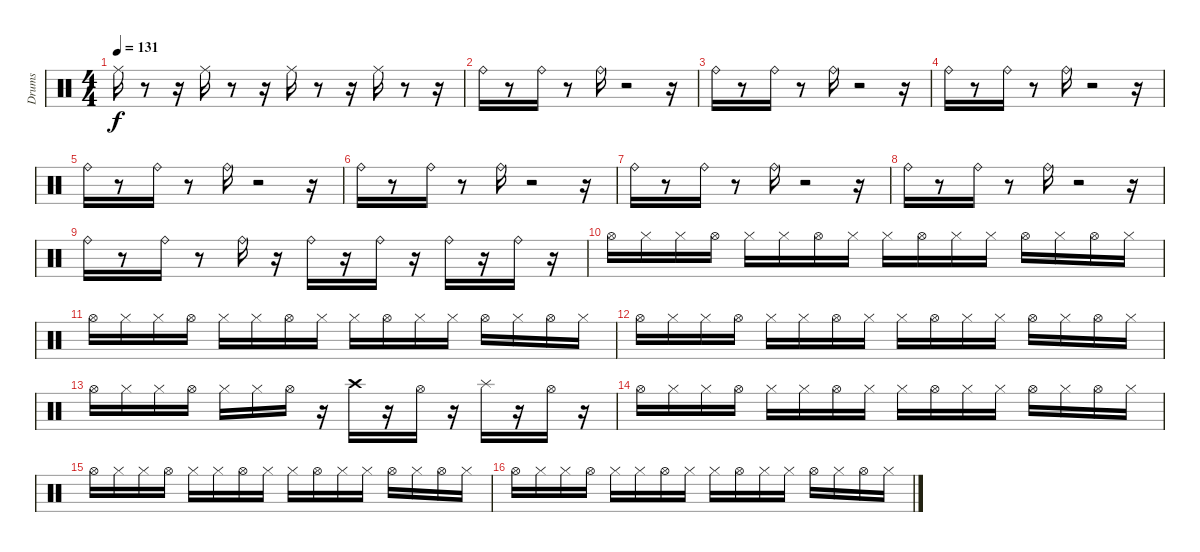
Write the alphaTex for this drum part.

\track ("Drums" "Drums") {instrument percussion}
\staff {score}
\articulation defaults
\ts (4 4)
\tempo 131
\clef neutral
\ks c "Ride (middle)".16{dy f}
r.8 r.16 "Ride (middle)".16 r.8 r.16 "Ride (middle)".16 r.8 r.16 "Ride (middle)".16 r.8 r.16 |
"Ride (bell)".16 r.8 "Ride (bell)".16 r.8 "Ride (bell)".16 r.2 r.16 |
"Ride (bell)".16 r.8 "Ride (bell)".16 r.8 "Ride (bell)".16 r.2 r.16 |
"Ride (bell)".16 r.8 "Ride (bell)".16 r.8 "Ride (bell)".16 r.2 r.16 |
"Ride (bell)".16 r.8 "Ride (bell)".16 r.8 "Ride (bell)".16 r.2 r.16 |
"Ride (bell)".16 r.8 "Ride (bell)".16 r.8 "Ride (bell)".16 r.2 r.16 |
"Ride (bell)".16 r.8 "Ride (bell)".16 r.8 "Ride (bell)".16 r.2 r.16 |
"Ride (bell)".16 r.8 "Ride (bell)".16 r.8 "Ride (bell)".16 r.2 r.16 |
"Ride (bell)".16 r.8 "Ride (bell)".16 r.8 "Ride (bell)".16 r.16 "Ride (bell)".16 r.16 "Ride (bell)".16 r.16 "Ride (bell)".16 r.16 "Ride (bell)".16 r.16 |
"Hi-Hat (open)".16 "Hi-Hat (closed)".16 "Hi-Hat (closed)".16 "Hi-Hat (open)".16 "Hi-Hat (closed)".16 "Hi-Hat (closed)".16 "Hi-Hat (open)".16 "Hi-Hat (closed)".16 "Hi-Hat (closed)".16 "Hi-Hat (open)".16 "Hi-Hat (closed)".16 "Hi-Hat (closed)".16 "Hi-Hat (open)".16 "Hi-Hat (closed)".16 "Hi-Hat (open)".16 "Hi-Hat (closed)".16 |
"Hi-Hat (open)".16 "Hi-Hat (closed)".16 "Hi-Hat (closed)".16 "Hi-Hat (open)".16 "Hi-Hat (closed)".16 "Hi-Hat (closed)".16 "Hi-Hat (open)".16 "Hi-Hat (closed)".16 "Hi-Hat (closed)".16 "Hi-Hat (open)".16 "Hi-Hat (closed)".16 "Hi-Hat (closed)".16 "Hi-Hat (open)".16 "Hi-Hat (closed)".16 "Hi-Hat (open)".16 "Hi-Hat (closed)".16 |
"Hi-Hat (open)".16 "Hi-Hat (closed)".16 "Hi-Hat (closed)".16 "Hi-Hat (open)".16 "Hi-Hat (closed)".16 "Hi-Hat (closed)".16 "Hi-Hat (open)".16 "Hi-Hat (closed)".16 "Hi-Hat (closed)".16 "Hi-Hat (open)".16 "Hi-Hat (closed)".16 "Hi-Hat (closed)".16 "Hi-Hat (open)".16 "Hi-Hat (closed)".16 "Hi-Hat (open)".16 "Hi-Hat (closed)".16 |
"Hi-Hat (open)".16 "Hi-Hat (closed)".16 "Hi-Hat (closed)".16 "Hi-Hat (open)".16 "Hi-Hat (closed)".16 "Hi-Hat (closed)".16 "Hi-Hat (open)".16 r.16 "Crash high (hit)".16 r.16 "Hi-Hat (open)".16 r.16 "Splash (hit)".16 r.16 "Hi-Hat (open)".16 r.16 |
"Hi-Hat (open)".16 "Hi-Hat (closed)".16 "Hi-Hat (closed)".16 "Hi-Hat (open)".16 "Hi-Hat (closed)".16 "Hi-Hat (closed)".16 "Hi-Hat (open)".16 "Hi-Hat (closed)".16 "Hi-Hat (closed)".16 "Hi-Hat (open)".16 "Hi-Hat (closed)".16 "Hi-Hat (closed)".16 "Hi-Hat (open)".16 "Hi-Hat (closed)".16 "Hi-Hat (open)".16 "Hi-Hat (closed)".16 |
"Hi-Hat (open)".16 "Hi-Hat (closed)".16 "Hi-Hat (closed)".16 "Hi-Hat (open)".16 "Hi-Hat (closed)".16 "Hi-Hat (closed)".16 "Hi-Hat (open)".16 "Hi-Hat (closed)".16 "Hi-Hat (closed)".16 "Hi-Hat (open)".16 "Hi-Hat (closed)".16 "Hi-Hat (closed)".16 "Hi-Hat (open)".16 "Hi-Hat (closed)".16 "Hi-Hat (open)".16 "Hi-Hat (closed)".16 |
"Hi-Hat (open)".16 "Hi-Hat (closed)".16 "Hi-Hat (closed)".16 "Hi-Hat (open)".16 "Hi-Hat (closed)".16 "Hi-Hat (closed)".16 "Hi-Hat (open)".16 "Hi-Hat (closed)".16 "Hi-Hat (closed)".16 "Hi-Hat (open)".16 "Hi-Hat (closed)".16 "Hi-Hat (closed)".16 "Hi-Hat (open)".16 "Hi-Hat (closed)".16 "Hi-Hat (open)".16 "Hi-Hat (closed)".16
